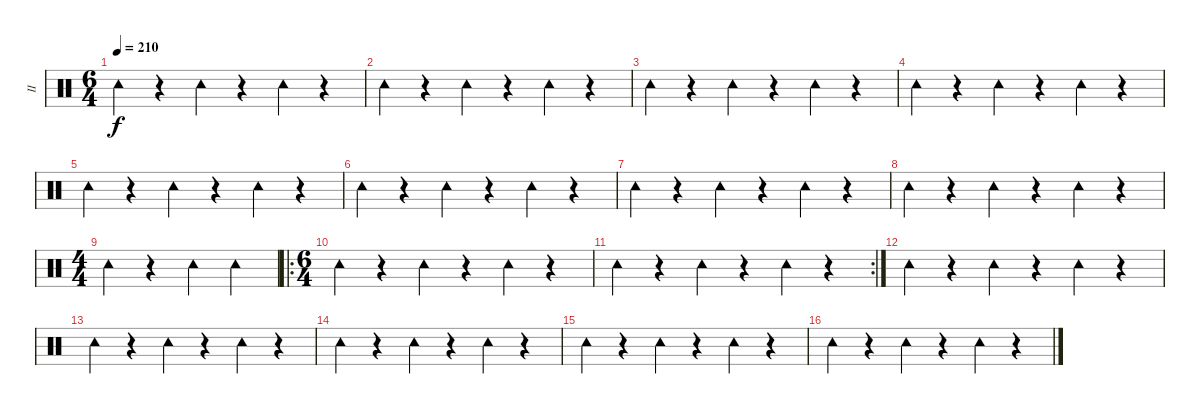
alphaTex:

\track ("II" "II") {instrument percussion}
\staff {score}
\articulation defaults
\ts (6 4)
\tempo 210
\clef neutral
\ks c "Tambourine (hit)".4{dy f}
r.4 "Tambourine (hit)".4 r.4 "Tambourine (hit)".4 r.4 |
"Tambourine (hit)".4 r.4 "Tambourine (hit)".4 r.4 "Tambourine (hit)".4 r.4 |
"Tambourine (hit)".4 r.4 "Tambourine (hit)".4 r.4 "Tambourine (hit)".4 r.4 |
"Tambourine (hit)".4 r.4 "Tambourine (hit)".4 r.4 "Tambourine (hit)".4 r.4 |
"Tambourine (hit)".4 r.4 "Tambourine (hit)".4 r.4 "Tambourine (hit)".4 r.4 |
"Tambourine (hit)".4 r.4 "Tambourine (hit)".4 r.4 "Tambourine (hit)".4 r.4 |
"Tambourine (hit)".4 r.4 "Tambourine (hit)".4 r.4 "Tambourine (hit)".4 r.4 |
"Tambourine (hit)".4 r.4 "Tambourine (hit)".4 r.4 "Tambourine (hit)".4 r.4 |
\ts (4 4)
"Tambourine (hit)".4 r.4 "Tambourine (hit)".4 "Tambourine (hit)".4 |
\ro
\ts (6 4)
"Tambourine (hit)".4 r.4 "Tambourine (hit)".4 r.4 "Tambourine (hit)".4 r.4 |
\rc 2 "Tambourine (hit)".4
r.4 "Tambourine (hit)".4 r.4 "Tambourine (hit)".4 r.4 |
"Tambourine (hit)".4 r.4 "Tambourine (hit)".4 r.4 "Tambourine (hit)".4 r.4 |
"Tambourine (hit)".4 r.4 "Tambourine (hit)".4 r.4 "Tambourine (hit)".4 r.4 |
"Tambourine (hit)".4 r.4 "Tambourine (hit)".4 r.4 "Tambourine (hit)".4 r.4 |
"Tambourine (hit)".4 r.4 "Tambourine (hit)".4 r.4 "Tambourine (hit)".4 r.4 |
"Tambourine (hit)".4 r.4 "Tambourine (hit)".4 r.4 "Tambourine (hit)".4 r.4
